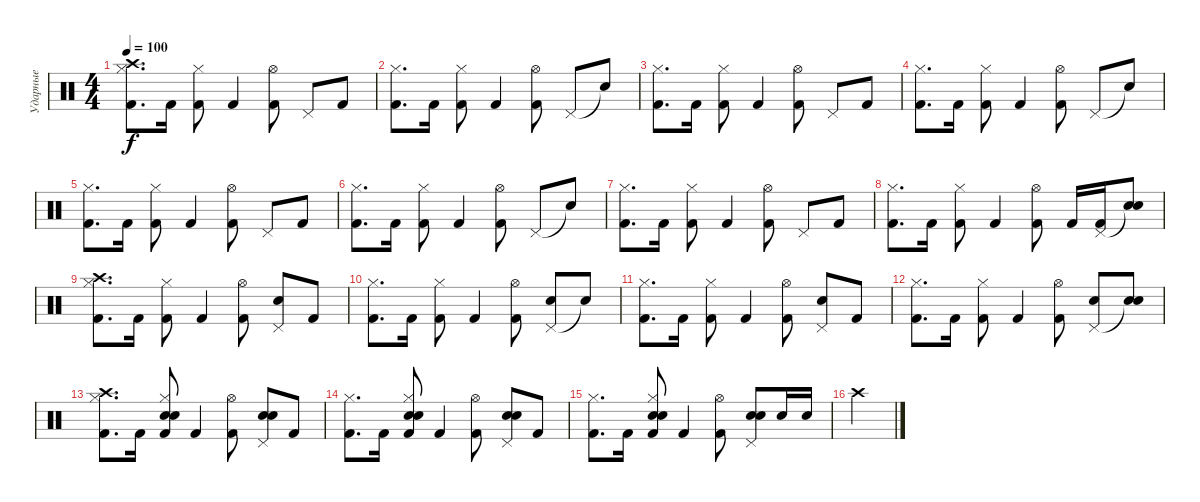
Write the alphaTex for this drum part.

\track ("Ударные" "Ударные") {instrument percussion}
\staff {score}
\articulation defaults
\ts (4 4)
\tempo 100
\clef neutral
\ks c
("Crash high (hit)" "Kick (hit) 2" "Hi-Hat (closed)").8{d dy f} "Kick (hit) 2".16 ("Kick (hit) 2" "Hi-Hat (closed)").8 "Kick (hit) 2".4 ("Kick (hit) 2" "Hi-Hat (open)").8 "Pedal Hi-Hat (hit)".8 "Kick (hit) 2".8 |
("Kick (hit) 2" "Hi-Hat (closed)").8{d} "Kick (hit) 2".16 ("Kick (hit) 2" "Hi-Hat (closed)").8 "Kick (hit) 2".4 ("Kick (hit) 2" "Hi-Hat (open)").8 "Pedal Hi-Hat (hit)".8 "Snare (hit)"{t}.8 |
("Kick (hit) 2" "Hi-Hat (closed)").8{d} "Kick (hit) 2".16 ("Kick (hit) 2" "Hi-Hat (closed)").8 "Kick (hit) 2".4 ("Kick (hit) 2" "Hi-Hat (open)").8 "Pedal Hi-Hat (hit)".8 "Kick (hit) 2".8 |
("Kick (hit) 2" "Hi-Hat (closed)").8{d} "Kick (hit) 2".16 ("Kick (hit) 2" "Hi-Hat (closed)").8 "Kick (hit) 2".4 ("Kick (hit) 2" "Hi-Hat (open)").8 "Pedal Hi-Hat (hit)".8 "Snare (hit)"{t}.8 |
("Kick (hit) 2" "Hi-Hat (closed)").8{d} "Kick (hit) 2".16 ("Kick (hit) 2" "Hi-Hat (closed)").8 "Kick (hit) 2".4 ("Kick (hit) 2" "Hi-Hat (open)").8 "Pedal Hi-Hat (hit)".8 "Kick (hit) 2".8 |
("Kick (hit) 2" "Hi-Hat (closed)").8{d} "Kick (hit) 2".16 ("Kick (hit) 2" "Hi-Hat (closed)").8 "Kick (hit) 2".4 ("Kick (hit) 2" "Hi-Hat (open)").8 "Pedal Hi-Hat (hit)".8 "Snare (hit)"{t}.8 |
("Kick (hit) 2" "Hi-Hat (closed)").8{d} "Kick (hit) 2".16 ("Kick (hit) 2" "Hi-Hat (closed)").8 "Kick (hit) 2".4 ("Kick (hit) 2" "Hi-Hat (open)").8 "Pedal Hi-Hat (hit)".8 "Kick (hit) 2".8 |
("Kick (hit) 2" "Hi-Hat (closed)").8{d} "Kick (hit) 2".16 ("Kick (hit) 2" "Hi-Hat (closed)").8 "Kick (hit) 2".4 ("Kick (hit) 2" "Hi-Hat (open)").8 "Kick (hit) 2".16 ("Pedal Hi-Hat (hit)" "Kick (hit) 2").16 ("Snare (hit)"{t} "Snare (hit) 2").8 |
("Crash high (hit)" "Kick (hit) 2" "Hi-Hat (closed)").8{d} "Kick (hit) 2".16 ("Kick (hit) 2" "Hi-Hat (closed)").8 "Kick (hit) 2".4 ("Kick (hit) 2" "Hi-Hat (open)").8 ("Pedal Hi-Hat (hit)" "Snare (hit) 2").8 "Kick (hit) 2".8 |
("Kick (hit) 2" "Hi-Hat (closed)").8{d} "Kick (hit) 2".16 ("Kick (hit) 2" "Hi-Hat (closed)").8 "Kick (hit) 2".4 ("Kick (hit) 2" "Hi-Hat (open)").8 ("Pedal Hi-Hat (hit)" "Snare (hit) 2").8 "Snare (hit)"{t}.8 |
("Kick (hit) 2" "Hi-Hat (closed)").8{d} "Kick (hit) 2".16 ("Kick (hit) 2" "Hi-Hat (closed)").8 "Kick (hit) 2".4 ("Kick (hit) 2" "Hi-Hat (open)").8 ("Pedal Hi-Hat (hit)" "Snare (hit) 2").8 "Kick (hit) 2".8 |
("Kick (hit) 2" "Hi-Hat (closed)").8{d} "Kick (hit) 2".16 ("Kick (hit) 2" "Hi-Hat (closed)").8 "Kick (hit) 2".4 ("Kick (hit) 2" "Hi-Hat (open)").8 ("Pedal Hi-Hat (hit)" "Snare (hit) 2").8 ("Snare (hit)"{t} "Electric Snare (hit)").8 |
("Crash high (hit)" "Kick (hit) 2" "Hi-Hat (closed)").8{d} "Kick (hit) 2".16 ("Kick (hit) 2" "Electric Snare (hit)" "Hi-Hat (closed)" "Electric Snare (hit)").8 "Kick (hit) 2".4 ("Kick (hit) 2" "Hi-Hat (open)").8 ("Electric Snare (hit)" "Pedal Hi-Hat (hit)" "Electric Snare (hit)").8 "Kick (hit) 2".8 |
("Kick (hit) 2" "Hi-Hat (closed)").8{d} "Kick (hit) 2".16 ("Kick (hit) 2" "Electric Snare (hit)" "Hi-Hat (closed)" "Electric Snare (hit)").8 "Kick (hit) 2".4 ("Kick (hit) 2" "Hi-Hat (open)").8 ("Electric Snare (hit)" "Pedal Hi-Hat (hit)" "Electric Snare (hit)").8 "Kick (hit) 2".8 |
("Kick (hit) 2" "Hi-Hat (closed)").8{d} "Kick (hit) 2".16 ("Kick (hit) 2" "Electric Snare (hit)" "Hi-Hat (closed)" "Electric Snare (hit)").8 "Kick (hit) 2".4 ("Kick (hit) 2" "Hi-Hat (open)").8 ("Electric Snare (hit)" "Pedal Hi-Hat (hit)" "Electric Snare (hit)").8 "Snare (hit) 2".16 "Snare (hit) 2".16 |
"Crash high (hit)".4
